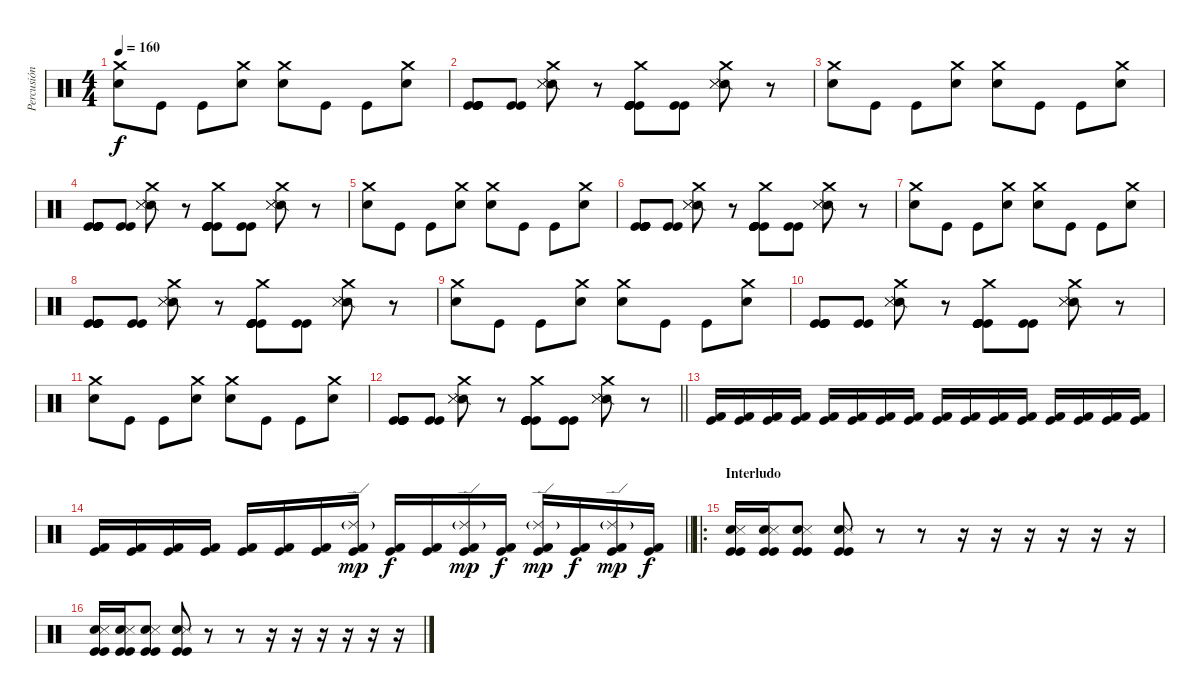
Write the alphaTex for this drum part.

\track ("Percusión" "Percusión") {instrument percussion}
\staff {score}
\articulation defaults
\ts (4 4)
\tempo 160
\clef neutral
\ks c
("Crash medium (hit)" "Electric Snare (hit)").8{dy f} "Kick (hit)".8 "Kick (hit)".8 ("Crash medium (hit)" "Electric Snare (hit)").8 ("Crash medium (hit)" "Electric Snare (hit)").8 "Kick (hit)".8 "Kick (hit)".8 ("Crash medium (hit)" "Electric Snare (hit)").8 |
("Kick (hit)" "Kick (hit)" "Kick (hit)" "Kick (hit)" "Kick (hit)").8 ("Kick (hit)" "Kick (hit)").8 ("Crash medium (hit)" "Snare (side stick) 2" "Metronome (hit)" "Metronome (hit)").8 r.8 ("Crash medium (hit)" "Kick (hit)" "Kick (hit)" "Kick (hit)" "Kick (hit)" "Kick (hit)").8 ("Kick (hit)" "Kick (hit)").8 ("Crash medium (hit)" "Snare (side stick) 2" "Metronome (hit)" "Metronome (hit)").8 r.8 |
("Crash medium (hit)" "Electric Snare (hit)").8 "Kick (hit)".8 "Kick (hit)".8 ("Crash medium (hit)" "Electric Snare (hit)").8 ("Crash medium (hit)" "Electric Snare (hit)").8 "Kick (hit)".8 "Kick (hit)".8 ("Crash medium (hit)" "Electric Snare (hit)").8 |
("Kick (hit)" "Kick (hit)" "Kick (hit)" "Kick (hit)" "Kick (hit)").8 ("Kick (hit)" "Kick (hit)").8 ("Crash medium (hit)" "Snare (side stick) 2" "Metronome (hit)" "Metronome (hit)").8 r.8 ("Crash medium (hit)" "Kick (hit)" "Kick (hit)" "Kick (hit)" "Kick (hit)" "Kick (hit)").8 ("Kick (hit)" "Kick (hit)").8 ("Crash medium (hit)" "Snare (side stick) 2" "Metronome (hit)" "Metronome (hit)").8 r.8 |
("Crash medium (hit)" "Electric Snare (hit)").8 "Kick (hit)".8 "Kick (hit)".8 ("Crash medium (hit)" "Electric Snare (hit)").8 ("Crash medium (hit)" "Electric Snare (hit)").8 "Kick (hit)".8 "Kick (hit)".8 ("Crash medium (hit)" "Electric Snare (hit)").8 |
("Kick (hit)" "Kick (hit)" "Kick (hit)" "Kick (hit)" "Kick (hit)").8 ("Kick (hit)" "Kick (hit)").8 ("Crash medium (hit)" "Snare (side stick) 2" "Metronome (hit)" "Metronome (hit)").8 r.8 ("Crash medium (hit)" "Kick (hit)" "Kick (hit)" "Kick (hit)" "Kick (hit)" "Kick (hit)").8 ("Kick (hit)" "Kick (hit)").8 ("Crash medium (hit)" "Snare (side stick) 2" "Metronome (hit)" "Metronome (hit)").8 r.8 |
("Crash medium (hit)" "Electric Snare (hit)").8 "Kick (hit)".8 "Kick (hit)".8 ("Crash medium (hit)" "Electric Snare (hit)").8 ("Crash medium (hit)" "Electric Snare (hit)").8 "Kick (hit)".8 "Kick (hit)".8 ("Crash medium (hit)" "Electric Snare (hit)").8 |
("Kick (hit)" "Kick (hit)" "Kick (hit)" "Kick (hit)" "Kick (hit)").8 ("Kick (hit)" "Kick (hit)").8 ("Crash medium (hit)" "Snare (side stick) 2" "Metronome (hit)" "Metronome (hit)").8 r.8 ("Crash medium (hit)" "Kick (hit)" "Kick (hit)" "Kick (hit)" "Kick (hit)" "Kick (hit)").8 ("Kick (hit)" "Kick (hit)").8 ("Crash medium (hit)" "Snare (side stick) 2" "Metronome (hit)" "Metronome (hit)").8 r.8 |
("Crash medium (hit)" "Electric Snare (hit)").8 "Kick (hit)".8 "Kick (hit)".8 ("Crash medium (hit)" "Electric Snare (hit)").8 ("Crash medium (hit)" "Electric Snare (hit)").8 "Kick (hit)".8 "Kick (hit)".8 ("Crash medium (hit)" "Electric Snare (hit)").8 |
("Kick (hit)" "Kick (hit)" "Kick (hit)" "Kick (hit)" "Kick (hit)").8 ("Kick (hit)" "Kick (hit)").8 ("Crash medium (hit)" "Snare (side stick) 2" "Metronome (hit)" "Metronome (hit)").8 r.8 ("Crash medium (hit)" "Kick (hit)" "Kick (hit)" "Kick (hit)" "Kick (hit)" "Kick (hit)").8 ("Kick (hit)" "Kick (hit)").8 ("Crash medium (hit)" "Snare (side stick) 2" "Metronome (hit)" "Metronome (hit)").8 r.8 |
("Crash medium (hit)" "Electric Snare (hit)").8 "Kick (hit)".8 "Kick (hit)".8 ("Crash medium (hit)" "Electric Snare (hit)").8 ("Crash medium (hit)" "Electric Snare (hit)").8 "Kick (hit)".8 "Kick (hit)".8 ("Crash medium (hit)" "Electric Snare (hit)").8 |
\barLineRight lightlight
("Kick (hit)" "Kick (hit)" "Kick (hit)" "Kick (hit)" "Kick (hit)").8 ("Kick (hit)" "Kick (hit)").8 ("Crash medium (hit)" "Snare (side stick) 2" "Metronome (hit)" "Metronome (hit)").8 r.8 ("Crash medium (hit)" "Kick (hit)" "Kick (hit)" "Kick (hit)" "Kick (hit)" "Kick (hit)").8 ("Kick (hit)" "Kick (hit)").8 ("Crash medium (hit)" "Snare (side stick) 2" "Metronome (hit)" "Metronome (hit)").8 r.8 |
("Kick (hit) 2" "Kick (hit)").16 ("Kick (hit) 2" "Kick (hit)").16 ("Kick (hit) 2" "Kick (hit)").16 ("Kick (hit) 2" "Kick (hit)").16 ("Kick (hit) 2" "Kick (hit)").16 ("Kick (hit) 2" "Kick (hit)").16 ("Kick (hit) 2" "Kick (hit)").16 ("Kick (hit) 2" "Kick (hit)").16 ("Kick (hit) 2" "Kick (hit)").16 ("Kick (hit) 2" "Kick (hit)").16 ("Kick (hit) 2" "Kick (hit)").16 ("Kick (hit) 2" "Kick (hit)").16 ("Kick (hit) 2" "Kick (hit)").16 ("Kick (hit) 2" "Kick (hit)").16 ("Kick (hit) 2" "Kick (hit)").16 ("Kick (hit) 2" "Kick (hit)").16 |
\barLineRight lightlight
("Kick (hit) 2" "Kick (hit)").16 ("Kick (hit) 2" "Kick (hit)").16 ("Kick (hit) 2" "Kick (hit)").16 ("Kick (hit) 2" "Kick (hit)").16 ("Kick (hit) 2" "Kick (hit)").16 ("Kick (hit) 2" "Kick (hit)").16 ("Kick (hit) 2" "Kick (hit)").16 ("Ride (edge) 2"{g} "Kick (hit) 2" "Kick (hit)").16{dy mp} ("Kick (hit) 2" "Kick (hit)").16{dy f} ("Kick (hit) 2" "Kick (hit)").16 ("Ride (edge) 2"{g} "Kick (hit) 2" "Kick (hit)").16{dy mp} ("Kick (hit) 2" "Kick (hit)").16{dy f} ("Ride (edge) 2"{g} "Kick (hit) 2" "Kick (hit)").16{dy mp} ("Kick (hit) 2" "Kick (hit)").16{dy f} ("Ride (edge) 2"{g} "Kick (hit) 2" "Kick (hit)").16{dy mp} ("Kick (hit) 2" "Kick (hit)").16{dy f} |
\ro
\section ("" "Interludo")
("Snare (hit) 2" "Kick (hit)" "Metronome (hit)" "Kick (hit)").16 ("Snare (hit) 2" "Kick (hit)" "Metronome (hit)" "Kick (hit)").16 ("Snare (hit) 2" "Kick (hit)" "Metronome (hit)" "Kick (hit)").8 ("Snare (hit) 2" "Kick (hit)" "Metronome (hit)" "Kick (hit)").8 r.8 r.8 r.16 r.16 r.16 r.16 r.16 r.16 |
("Snare (hit) 2" "Kick (hit)" "Metronome (hit)" "Kick (hit)").16 ("Snare (hit) 2" "Kick (hit)" "Metronome (hit)" "Kick (hit)").16 ("Snare (hit) 2" "Kick (hit)" "Metronome (hit)" "Kick (hit)").8 ("Snare (hit) 2" "Kick (hit)" "Metronome (hit)" "Kick (hit)").8 r.8 r.8 r.16 r.16 r.16 r.16 r.16 r.16
